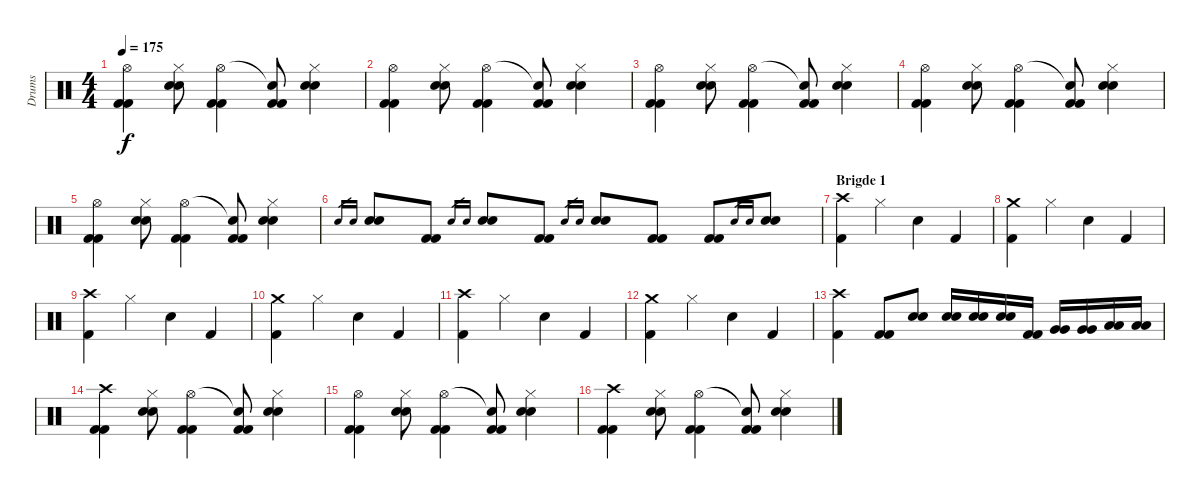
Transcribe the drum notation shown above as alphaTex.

\track ("Drums" "Drums") {instrument percussion}
\staff {score}
\articulation defaults
\ts (4 4)
\tempo 175
\clef neutral
\ks c
("Hi-Hat (open)" "Kick (hit) 2" "Kick (hit) 2").4{dy f} ("Hi-Hat (closed)" "Snare (hit) 2" "Snare (hit) 2").8 ("Hi-Hat (open)" "Kick (hit) 2" "Kick (hit) 2").4 ("Snare (hit)"{t} "Kick (hit) 2" "Kick (hit) 2").8 ("Hi-Hat (closed)" "Snare (hit) 2" "Snare (hit) 2").4 |
("Hi-Hat (open)" "Kick (hit) 2" "Kick (hit) 2").4 ("Hi-Hat (closed)" "Snare (hit) 2" "Snare (hit) 2").8 ("Hi-Hat (open)" "Kick (hit) 2" "Kick (hit) 2").4 ("Snare (hit)"{t} "Kick (hit) 2" "Kick (hit) 2").8 ("Hi-Hat (closed)" "Snare (hit) 2" "Snare (hit) 2").4 |
("Hi-Hat (open)" "Kick (hit) 2" "Kick (hit) 2").4 ("Hi-Hat (closed)" "Snare (hit) 2" "Snare (hit) 2").8 ("Hi-Hat (open)" "Kick (hit) 2" "Kick (hit) 2").4 ("Snare (hit)"{t} "Kick (hit) 2" "Kick (hit) 2").8 ("Hi-Hat (closed)" "Snare (hit) 2" "Snare (hit) 2").4 |
("Hi-Hat (open)" "Kick (hit) 2" "Kick (hit) 2").4 ("Hi-Hat (closed)" "Snare (hit) 2" "Snare (hit) 2").8 ("Hi-Hat (open)" "Kick (hit) 2" "Kick (hit) 2").4 ("Snare (hit)"{t} "Kick (hit) 2" "Kick (hit) 2").8 ("Hi-Hat (closed)" "Snare (hit) 2" "Snare (hit) 2").4 |
("Hi-Hat (open)" "Kick (hit) 2" "Kick (hit) 2").4 ("Hi-Hat (closed)" "Snare (hit) 2" "Snare (hit) 2").8 ("Hi-Hat (open)" "Kick (hit) 2" "Kick (hit) 2").4 ("Snare (hit)"{t} "Kick (hit) 2" "Kick (hit) 2").8 ("Hi-Hat (closed)" "Snare (hit) 2" "Snare (hit) 2").4 |
"Snare (hit) 2".16{gr} "Snare (hit) 2".16{gr} ("Snare (hit) 2" "Snare (hit) 2").8 ("Kick (hit) 2" "Kick (hit) 2").8 "Snare (hit) 2".16{gr} "Snare (hit) 2".16{gr} ("Snare (hit) 2" "Snare (hit) 2").8 ("Kick (hit) 2" "Kick (hit) 2").8 "Snare (hit) 2".16{gr} "Snare (hit) 2".16{gr} ("Snare (hit) 2" "Snare (hit) 2").8 ("Kick (hit) 2" "Kick (hit) 2").8 ("Kick (hit) 2" "Kick (hit) 2").8 "Snare (hit) 2".16{gr} "Snare (hit) 2".16{gr} ("Snare (hit) 2" "Snare (hit) 2").8 |
\section ("" "Brigde 1")
("Crash high (hit)" "Kick (hit) 2").4 "Hi-Hat (closed)".4 "Snare (hit) 2".4 "Kick (hit) 2".4 |
("Crash medium (hit)" "Kick (hit) 2").4 "Hi-Hat (closed)".4 "Snare (hit) 2".4 "Kick (hit) 2".4 |
("Crash high (hit)" "Kick (hit) 2").4 "Hi-Hat (closed)".4 "Snare (hit) 2".4 "Kick (hit) 2".4 |
("Crash medium (hit)" "Kick (hit) 2").4 "Hi-Hat (closed)".4 "Snare (hit) 2".4 "Kick (hit) 2".4 |
("Crash high (hit)" "Kick (hit) 2").4 "Hi-Hat (closed)".4 "Snare (hit) 2".4 "Kick (hit) 2".4 |
("Crash medium (hit)" "Kick (hit) 2").4 "Hi-Hat (closed)".4 "Snare (hit) 2".4 "Kick (hit) 2".4 |
("Crash high (hit)" "Kick (hit) 2").4 ("Kick (hit) 2" "Kick (hit) 2").8 ("Snare (hit) 2" "Snare (hit) 2").8 ("Snare (hit) 2" "Snare (hit) 2").16 ("Snare (hit) 2" "Snare (hit) 2").16 ("Snare (hit) 2" "Snare (hit) 2").16 ("Kick (hit) 2" "Kick (hit) 2").16 ("Very Low Tom (hit)" "Very Low Tom (hit)").16 ("Very Low Tom (hit)" "Very Low Tom (hit)").16 ("Low Floor Tom (hit)" "Low Floor Tom (hit)").16 ("Low Floor Tom (hit)" "Low Floor Tom (hit)").16 |
("Crash high (hit)" "Kick (hit) 2" "Kick (hit) 2").4 ("Hi-Hat (closed)" "Snare (hit) 2" "Snare (hit) 2").8 ("Hi-Hat (open)" "Kick (hit) 2" "Kick (hit) 2").4 ("Snare (hit)"{t} "Kick (hit) 2" "Kick (hit) 2").8 ("Hi-Hat (closed)" "Snare (hit) 2" "Snare (hit) 2").4 |
("Hi-Hat (open)" "Kick (hit) 2" "Kick (hit) 2").4 ("Hi-Hat (closed)" "Snare (hit) 2" "Snare (hit) 2").8 ("Hi-Hat (open)" "Kick (hit) 2" "Kick (hit) 2").4 ("Snare (hit)"{t} "Kick (hit) 2" "Kick (hit) 2").8 ("Hi-Hat (closed)" "Snare (hit) 2" "Snare (hit) 2").4 |
("Crash high (hit)" "Kick (hit) 2" "Kick (hit) 2").4 ("Hi-Hat (closed)" "Snare (hit) 2" "Snare (hit) 2").8 ("Hi-Hat (open)" "Kick (hit) 2" "Kick (hit) 2").4 ("Snare (hit)"{t} "Kick (hit) 2" "Kick (hit) 2").8 ("Hi-Hat (closed)" "Snare (hit) 2" "Snare (hit) 2").4
